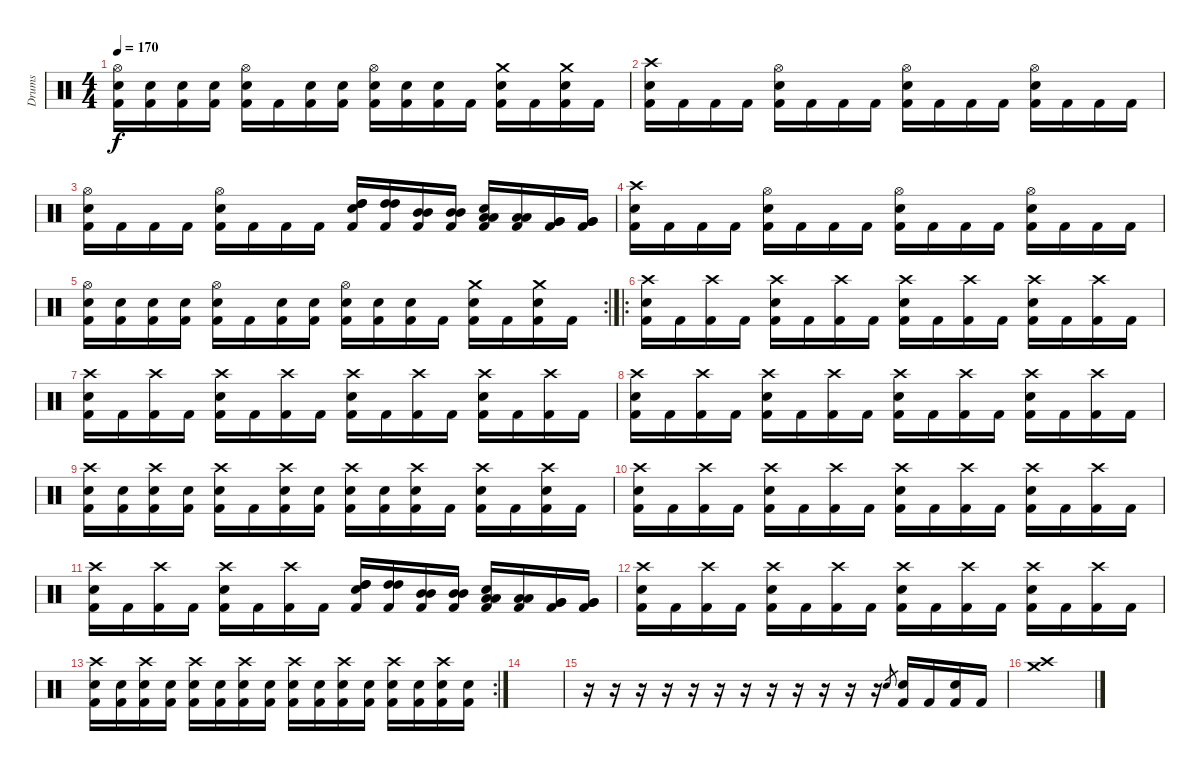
\track ("Drums" "Drums") {instrument percussion}
\staff {score}
\articulation defaults
\ts (4 4)
\tempo 170
\clef neutral
\ks c
("Hi-Hat (open)" "Electric Snare (hit)" "Kick (hit) 2").16{dy f} ("Electric Snare (hit)" "Kick (hit) 2").16 ("Electric Snare (hit)" "Kick (hit) 2").16 ("Electric Snare (hit)" "Kick (hit) 2").16 ("Hi-Hat (open)" "Electric Snare (hit)" "Kick (hit) 2").16 "Kick (hit) 2".16 ("Electric Snare (hit)" "Kick (hit) 2").16 ("Electric Snare (hit)" "Kick (hit) 2").16 ("Hi-Hat (open)" "Electric Snare (hit)" "Kick (hit) 2").16 ("Electric Snare (hit)" "Kick (hit) 2").16 ("Electric Snare (hit)" "Kick (hit) 2").16 "Kick (hit) 2".16 ("Crash medium (hit)" "Electric Snare (hit)" "Kick (hit) 2").16 "Kick (hit) 2".16 ("Crash medium (hit)" "Electric Snare (hit)" "Kick (hit) 2").16 "Kick (hit) 2".16 |
("Crash high (hit)" "Electric Snare (hit)" "Kick (hit) 2").16 "Kick (hit) 2".16 "Kick (hit) 2".16 "Kick (hit) 2".16 ("Hi-Hat (open)" "Electric Snare (hit)" "Kick (hit) 2").16 "Kick (hit) 2".16 "Kick (hit) 2".16 "Kick (hit) 2".16 ("Hi-Hat (open)" "Electric Snare (hit)" "Kick (hit) 2").16 "Kick (hit) 2".16 "Kick (hit) 2".16 "Kick (hit) 2".16 ("Hi-Hat (open)" "Electric Snare (hit)" "Kick (hit) 2").16 "Kick (hit) 2".16 "Kick (hit) 2".16 "Kick (hit) 2".16 |
("Hi-Hat (open)" "Electric Snare (hit)" "Kick (hit) 2").16 "Kick (hit) 2".16 "Kick (hit) 2".16 "Kick (hit) 2".16 ("Hi-Hat (open)" "Electric Snare (hit)" "Kick (hit) 2").16 "Kick (hit) 2".16 "Kick (hit) 2".16 "Kick (hit) 2".16 ("High Tom (hit)" "High Tom (hit)" "Electric Snare (hit)" "Kick (hit) 2").16 ("High Tom (hit)" "High Tom (hit)" "Kick (hit) 2").16 ("Mid Tom (hit)" "Mid Tom (hit)" "Kick (hit) 2").16 ("Mid Tom (hit)" "Mid Tom (hit)" "Kick (hit) 2").16 ("Low Tom (hit)" "Low Tom (hit)" "Electric Snare (hit)" "Kick (hit) 2").16 ("Low Tom (hit)" "Low Tom (hit)" "Kick (hit) 2").16 ("Very Low Tom (hit)" "Very Low Tom (hit)" "Kick (hit) 2").16 ("Very Low Tom (hit)" "Very Low Tom (hit)" "Kick (hit) 2").16 |
("Crash high (hit)" "Electric Snare (hit)" "Kick (hit) 2").16 "Kick (hit) 2".16 "Kick (hit) 2".16 "Kick (hit) 2".16 ("Hi-Hat (open)" "Electric Snare (hit)" "Kick (hit) 2").16 "Kick (hit) 2".16 "Kick (hit) 2".16 "Kick (hit) 2".16 ("Hi-Hat (open)" "Electric Snare (hit)" "Kick (hit) 2").16 "Kick (hit) 2".16 "Kick (hit) 2".16 "Kick (hit) 2".16 ("Hi-Hat (open)" "Electric Snare (hit)" "Kick (hit) 2").16 "Kick (hit) 2".16 "Kick (hit) 2".16 "Kick (hit) 2".16 |
\rc 2
("Hi-Hat (open)" "Electric Snare (hit)" "Kick (hit) 2").16 ("Electric Snare (hit)" "Kick (hit) 2").16 ("Electric Snare (hit)" "Kick (hit) 2").16 ("Electric Snare (hit)" "Kick (hit) 2").16 ("Hi-Hat (open)" "Electric Snare (hit)" "Kick (hit) 2").16 "Kick (hit) 2".16 ("Electric Snare (hit)" "Kick (hit) 2").16 ("Electric Snare (hit)" "Kick (hit) 2").16 ("Hi-Hat (open)" "Electric Snare (hit)" "Kick (hit) 2").16 ("Electric Snare (hit)" "Kick (hit) 2").16 ("Electric Snare (hit)" "Kick (hit) 2").16 "Kick (hit) 2".16 ("Crash medium (hit)" "Electric Snare (hit)" "Kick (hit) 2").16 "Kick (hit) 2".16 ("Crash medium (hit)" "Electric Snare (hit)" "Kick (hit) 2").16 "Kick (hit) 2".16 |
\ro
("Crash high (hit)" "Electric Snare (hit)" "Kick (hit) 2").16 "Kick (hit) 2".16 ("Crash high (hit)" "Kick (hit) 2").16 "Kick (hit) 2".16 ("Crash high (hit)" "Electric Snare (hit)" "Kick (hit) 2").16 "Kick (hit) 2".16 ("Crash high (hit)" "Kick (hit) 2").16 "Kick (hit) 2".16 ("Crash high (hit)" "Electric Snare (hit)" "Kick (hit) 2").16 "Kick (hit) 2".16 ("Crash high (hit)" "Kick (hit) 2").16 "Kick (hit) 2".16 ("Crash high (hit)" "Electric Snare (hit)" "Kick (hit) 2").16 "Kick (hit) 2".16 ("Crash high (hit)" "Kick (hit) 2").16 "Kick (hit) 2".16 |
("Crash high (hit)" "Electric Snare (hit)" "Kick (hit) 2").16 "Kick (hit) 2".16 ("Crash high (hit)" "Kick (hit) 2").16 "Kick (hit) 2".16 ("Crash high (hit)" "Electric Snare (hit)" "Kick (hit) 2").16 "Kick (hit) 2".16 ("Crash high (hit)" "Kick (hit) 2").16 "Kick (hit) 2".16 ("Crash high (hit)" "Electric Snare (hit)" "Kick (hit) 2").16 "Kick (hit) 2".16 ("Crash high (hit)" "Kick (hit) 2").16 "Kick (hit) 2".16 ("Crash high (hit)" "Electric Snare (hit)" "Kick (hit) 2").16 "Kick (hit) 2".16 ("Crash high (hit)" "Kick (hit) 2").16 "Kick (hit) 2".16 |
("Crash high (hit)" "Electric Snare (hit)" "Kick (hit) 2").16 "Kick (hit) 2".16 ("Crash high (hit)" "Kick (hit) 2").16 "Kick (hit) 2".16 ("Crash high (hit)" "Electric Snare (hit)" "Kick (hit) 2").16 "Kick (hit) 2".16 ("Crash high (hit)" "Kick (hit) 2").16 "Kick (hit) 2".16 ("Crash high (hit)" "Electric Snare (hit)" "Kick (hit) 2").16 "Kick (hit) 2".16 ("Crash high (hit)" "Kick (hit) 2").16 "Kick (hit) 2".16 ("Crash high (hit)" "Electric Snare (hit)" "Kick (hit) 2").16 "Kick (hit) 2".16 ("Crash high (hit)" "Kick (hit) 2").16 "Kick (hit) 2".16 |
("Crash high (hit)" "Electric Snare (hit)" "Kick (hit) 2").16 ("Electric Snare (hit)" "Kick (hit) 2").16 ("Crash high (hit)" "Electric Snare (hit)" "Kick (hit) 2").16 ("Electric Snare (hit)" "Kick (hit) 2").16 ("Crash high (hit)" "Electric Snare (hit)" "Kick (hit) 2").16 "Kick (hit) 2".16 ("Crash high (hit)" "Electric Snare (hit)" "Kick (hit) 2").16 ("Electric Snare (hit)" "Kick (hit) 2").16 ("Crash high (hit)" "Electric Snare (hit)" "Kick (hit) 2").16 ("Electric Snare (hit)" "Kick (hit) 2").16 ("Crash high (hit)" "Electric Snare (hit)" "Kick (hit) 2").16 "Kick (hit) 2".16 ("Crash high (hit)" "Electric Snare (hit)" "Kick (hit) 2").16 "Kick (hit) 2".16 ("Crash high (hit)" "Electric Snare (hit)" "Kick (hit) 2").16 "Kick (hit) 2".16 |
("Crash high (hit)" "Electric Snare (hit)" "Kick (hit) 2").16 "Kick (hit) 2".16 ("Crash high (hit)" "Kick (hit) 2").16 "Kick (hit) 2".16 ("Crash high (hit)" "Electric Snare (hit)" "Kick (hit) 2").16 "Kick (hit) 2".16 ("Crash high (hit)" "Kick (hit) 2").16 "Kick (hit) 2".16 ("Crash high (hit)" "Electric Snare (hit)" "Kick (hit) 2").16 "Kick (hit) 2".16 ("Crash high (hit)" "Kick (hit) 2").16 "Kick (hit) 2".16 ("Crash high (hit)" "Electric Snare (hit)" "Kick (hit) 2").16 "Kick (hit) 2".16 ("Crash high (hit)" "Kick (hit) 2").16 "Kick (hit) 2".16 |
("Crash high (hit)" "Electric Snare (hit)" "Kick (hit) 2").16 "Kick (hit) 2".16 ("Crash high (hit)" "Kick (hit) 2").16 "Kick (hit) 2".16 ("Crash high (hit)" "Electric Snare (hit)" "Kick (hit) 2").16 "Kick (hit) 2".16 ("Crash high (hit)" "Kick (hit) 2").16 "Kick (hit) 2".16 ("High Tom (hit)" "High Tom (hit)" "Electric Snare (hit)" "Kick (hit) 2").16 ("High Tom (hit)" "High Tom (hit)" "Kick (hit) 2").16 ("Mid Tom (hit)" "Mid Tom (hit)" "Kick (hit) 2").16 ("Mid Tom (hit)" "Mid Tom (hit)" "Kick (hit) 2").16 ("Low Tom (hit)" "Low Tom (hit)" "Electric Snare (hit)" "Kick (hit) 2").16 ("Low Tom (hit)" "Low Tom (hit)" "Kick (hit) 2").16 ("Very Low Tom (hit)" "Very Low Tom (hit)" "Kick (hit) 2").16 ("Very Low Tom (hit)" "Very Low Tom (hit)" "Kick (hit) 2").16 |
("Crash high (hit)" "Electric Snare (hit)" "Kick (hit) 2").16 "Kick (hit) 2".16 ("Crash high (hit)" "Kick (hit) 2").16 "Kick (hit) 2".16 ("Crash high (hit)" "Electric Snare (hit)" "Kick (hit) 2").16 "Kick (hit) 2".16 ("Crash high (hit)" "Kick (hit) 2").16 "Kick (hit) 2".16 ("Crash high (hit)" "Electric Snare (hit)" "Kick (hit) 2").16 "Kick (hit) 2".16 ("Crash high (hit)" "Kick (hit) 2").16 "Kick (hit) 2".16 ("Crash high (hit)" "Electric Snare (hit)" "Kick (hit) 2").16 "Kick (hit) 2".16 ("Crash high (hit)" "Kick (hit) 2").16 "Kick (hit) 2".16 |
\rc 2
("Crash high (hit)" "Electric Snare (hit)" "Kick (hit) 2").16 ("Electric Snare (hit)" "Kick (hit) 2").16 ("Crash high (hit)" "Electric Snare (hit)" "Kick (hit) 2").16 ("Electric Snare (hit)" "Kick (hit) 2").16 ("Crash high (hit)" "Electric Snare (hit)" "Kick (hit) 2").16 ("Electric Snare (hit)" "Kick (hit) 2").16 ("Crash high (hit)" "Electric Snare (hit)" "Kick (hit) 2").16 ("Electric Snare (hit)" "Kick (hit) 2").16 ("Crash high (hit)" "Electric Snare (hit)" "Kick (hit) 2").16 ("Electric Snare (hit)" "Kick (hit) 2").16 ("Crash high (hit)" "Electric Snare (hit)" "Kick (hit) 2").16 ("Electric Snare (hit)" "Kick (hit) 2").16 ("Crash high (hit)" "Electric Snare (hit)" "Kick (hit) 2").16 ("Electric Snare (hit)" "Kick (hit) 2").16 ("Crash high (hit)" "Electric Snare (hit)" "Kick (hit) 2").16 ("Electric Snare (hit)" "Kick (hit) 2").16 |
|
r.16 r.16 r.16 r.16 r.16 r.16 r.16 r.16 r.16 r.16 r.16 r.16 "Electric Snare (hit)".8{gr} ("Electric Snare (hit)" "Kick (hit) 2").16 "Kick (hit) 2".16 ("Electric Snare (hit)" "Kick (hit) 2").16 "Kick (hit) 2".16 |
("Crash medium (hit)" "Crash high (hit)").1
